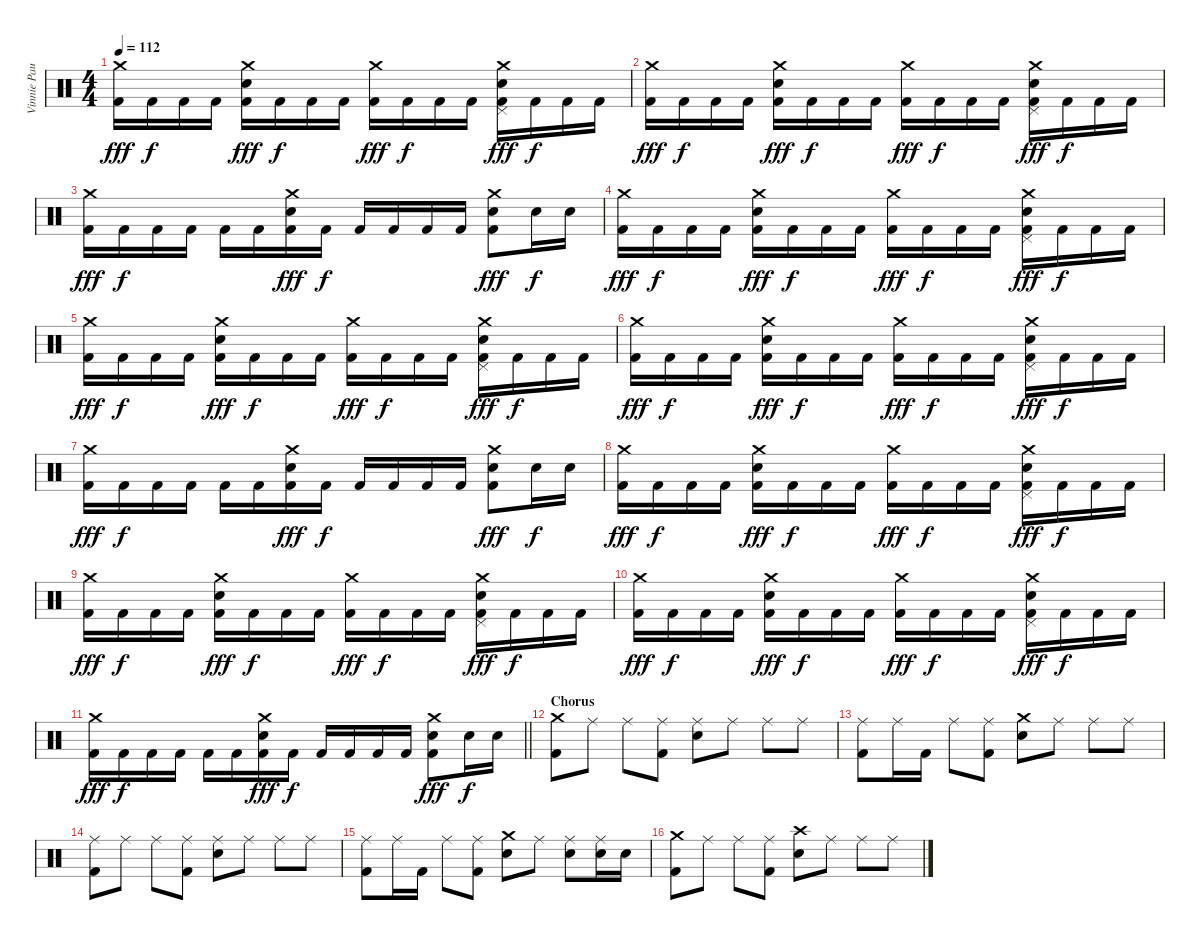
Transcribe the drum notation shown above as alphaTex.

\track ("Vinnie Paul" "Vinnie Pau") {instrument percussion}
\staff {score}
\articulation defaults
\ts (4 4)
\tempo 112
\clef neutral
\ks c
("Crash medium (hit)" "Kick (hit) 2").16{dy fff} "Kick (hit) 2".16{dy f} "Kick (hit) 2".16 "Kick (hit) 2".16 ("Crash medium (hit)" "Electric Snare (hit)" "Kick (hit) 2").16{dy fff} "Kick (hit) 2".16{dy f} "Kick (hit) 2".16 "Kick (hit) 2".16 ("Crash medium (hit)" "Kick (hit) 2").16{dy fff} "Kick (hit) 2".16{dy f} "Kick (hit) 2".16 "Kick (hit) 2".16 ("Crash medium (hit)" "Pedal Hi-Hat (hit)" "Electric Snare (hit)" "Kick (hit) 2").16{dy fff} "Kick (hit) 2".16{dy f} "Kick (hit) 2".16 "Kick (hit) 2".16 |
("Crash medium (hit)" "Kick (hit) 2").16{dy fff} "Kick (hit) 2".16{dy f} "Kick (hit) 2".16 "Kick (hit) 2".16 ("Crash medium (hit)" "Electric Snare (hit)" "Kick (hit) 2").16{dy fff} "Kick (hit) 2".16{dy f} "Kick (hit) 2".16 "Kick (hit) 2".16 ("Crash medium (hit)" "Kick (hit) 2").16{dy fff} "Kick (hit) 2".16{dy f} "Kick (hit) 2".16 "Kick (hit) 2".16 ("Crash medium (hit)" "Pedal Hi-Hat (hit)" "Electric Snare (hit)" "Kick (hit) 2").16{dy fff} "Kick (hit) 2".16{dy f} "Kick (hit) 2".16 "Kick (hit) 2".16 |
("Crash medium (hit)" "Kick (hit) 2").16{dy fff} "Kick (hit) 2".16{dy f} "Kick (hit) 2".16 "Kick (hit) 2".16 "Kick (hit) 2".16 "Kick (hit) 2".16 ("Crash medium (hit)" "Electric Snare (hit)" "Kick (hit) 2").16{dy fff} "Kick (hit) 2".16{dy f} "Kick (hit) 2".16 "Kick (hit) 2".16 "Kick (hit) 2".16 "Kick (hit) 2".16 ("Crash medium (hit)" "Electric Snare (hit)" "Kick (hit) 2").8{dy fff} "Electric Snare (hit)".16{dy f} "Electric Snare (hit)".16 |
("Crash medium (hit)" "Kick (hit) 2").16{dy fff} "Kick (hit) 2".16{dy f} "Kick (hit) 2".16 "Kick (hit) 2".16 ("Crash medium (hit)" "Electric Snare (hit)" "Kick (hit) 2").16{dy fff} "Kick (hit) 2".16{dy f} "Kick (hit) 2".16 "Kick (hit) 2".16 ("Crash medium (hit)" "Kick (hit) 2").16{dy fff} "Kick (hit) 2".16{dy f} "Kick (hit) 2".16 "Kick (hit) 2".16 ("Crash medium (hit)" "Pedal Hi-Hat (hit)" "Electric Snare (hit)" "Kick (hit) 2").16{dy fff} "Kick (hit) 2".16{dy f} "Kick (hit) 2".16 "Kick (hit) 2".16 |
("Crash medium (hit)" "Kick (hit) 2").16{dy fff} "Kick (hit) 2".16{dy f} "Kick (hit) 2".16 "Kick (hit) 2".16 ("Crash medium (hit)" "Electric Snare (hit)" "Kick (hit) 2").16{dy fff} "Kick (hit) 2".16{dy f} "Kick (hit) 2".16 "Kick (hit) 2".16 ("Crash medium (hit)" "Kick (hit) 2").16{dy fff} "Kick (hit) 2".16{dy f} "Kick (hit) 2".16 "Kick (hit) 2".16 ("Crash medium (hit)" "Pedal Hi-Hat (hit)" "Electric Snare (hit)" "Kick (hit) 2").16{dy fff} "Kick (hit) 2".16{dy f} "Kick (hit) 2".16 "Kick (hit) 2".16 |
("Crash medium (hit)" "Kick (hit) 2").16{dy fff} "Kick (hit) 2".16{dy f} "Kick (hit) 2".16 "Kick (hit) 2".16 ("Crash medium (hit)" "Electric Snare (hit)" "Kick (hit) 2").16{dy fff} "Kick (hit) 2".16{dy f} "Kick (hit) 2".16 "Kick (hit) 2".16 ("Crash medium (hit)" "Kick (hit) 2").16{dy fff} "Kick (hit) 2".16{dy f} "Kick (hit) 2".16 "Kick (hit) 2".16 ("Crash medium (hit)" "Pedal Hi-Hat (hit)" "Electric Snare (hit)" "Kick (hit) 2").16{dy fff} "Kick (hit) 2".16{dy f} "Kick (hit) 2".16 "Kick (hit) 2".16 |
("Crash medium (hit)" "Kick (hit) 2").16{dy fff} "Kick (hit) 2".16{dy f} "Kick (hit) 2".16 "Kick (hit) 2".16 "Kick (hit) 2".16 "Kick (hit) 2".16 ("Crash medium (hit)" "Electric Snare (hit)" "Kick (hit) 2").16{dy fff} "Kick (hit) 2".16{dy f} "Kick (hit) 2".16 "Kick (hit) 2".16 "Kick (hit) 2".16 "Kick (hit) 2".16 ("Crash medium (hit)" "Electric Snare (hit)" "Kick (hit) 2").8{dy fff} "Electric Snare (hit)".16{dy f} "Electric Snare (hit)".16 |
("Crash medium (hit)" "Kick (hit) 2").16{dy fff} "Kick (hit) 2".16{dy f} "Kick (hit) 2".16 "Kick (hit) 2".16 ("Crash medium (hit)" "Electric Snare (hit)" "Kick (hit) 2").16{dy fff} "Kick (hit) 2".16{dy f} "Kick (hit) 2".16 "Kick (hit) 2".16 ("Crash medium (hit)" "Kick (hit) 2").16{dy fff} "Kick (hit) 2".16{dy f} "Kick (hit) 2".16 "Kick (hit) 2".16 ("Crash medium (hit)" "Pedal Hi-Hat (hit)" "Electric Snare (hit)" "Kick (hit) 2").16{dy fff} "Kick (hit) 2".16{dy f} "Kick (hit) 2".16 "Kick (hit) 2".16 |
("Crash medium (hit)" "Kick (hit) 2").16{dy fff} "Kick (hit) 2".16{dy f} "Kick (hit) 2".16 "Kick (hit) 2".16 ("Crash medium (hit)" "Electric Snare (hit)" "Kick (hit) 2").16{dy fff} "Kick (hit) 2".16{dy f} "Kick (hit) 2".16 "Kick (hit) 2".16 ("Crash medium (hit)" "Kick (hit) 2").16{dy fff} "Kick (hit) 2".16{dy f} "Kick (hit) 2".16 "Kick (hit) 2".16 ("Crash medium (hit)" "Pedal Hi-Hat (hit)" "Electric Snare (hit)" "Kick (hit) 2").16{dy fff} "Kick (hit) 2".16{dy f} "Kick (hit) 2".16 "Kick (hit) 2".16 |
("Crash medium (hit)" "Kick (hit) 2").16{dy fff} "Kick (hit) 2".16{dy f} "Kick (hit) 2".16 "Kick (hit) 2".16 ("Crash medium (hit)" "Electric Snare (hit)" "Kick (hit) 2").16{dy fff} "Kick (hit) 2".16{dy f} "Kick (hit) 2".16 "Kick (hit) 2".16 ("Crash medium (hit)" "Kick (hit) 2").16{dy fff} "Kick (hit) 2".16{dy f} "Kick (hit) 2".16 "Kick (hit) 2".16 ("Crash medium (hit)" "Pedal Hi-Hat (hit)" "Electric Snare (hit)" "Kick (hit) 2").16{dy fff} "Kick (hit) 2".16{dy f} "Kick (hit) 2".16 "Kick (hit) 2".16 |
\barLineRight lightlight
("Crash medium (hit)" "Kick (hit) 2").16{dy fff} "Kick (hit) 2".16{dy f} "Kick (hit) 2".16 "Kick (hit) 2".16 "Kick (hit) 2".16 "Kick (hit) 2".16 ("Crash medium (hit)" "Electric Snare (hit)" "Kick (hit) 2").16{dy fff} "Kick (hit) 2".16{dy f} "Kick (hit) 2".16 "Kick (hit) 2".16 "Kick (hit) 2".16 "Kick (hit) 2".16 ("Crash medium (hit)" "Electric Snare (hit)" "Kick (hit) 2").8{dy fff} "Electric Snare (hit)".16{dy f} "Electric Snare (hit)".16 |
\section ("" "Chorus")
("Crash medium (hit)" "Kick (hit) 2").8 "Ride (middle)".8 "Ride (middle)".8 ("Ride (middle)" "Kick (hit) 2").8 ("Ride (middle)" "Electric Snare (hit)").8 "Ride (middle)".8 "Ride (middle)".8 "Ride (middle)".8 |
("Ride (middle)" "Kick (hit) 2").8 "Ride (middle)".16 "Kick (hit) 2".16 "Ride (middle)".8 ("Ride (middle)" "Kick (hit) 2").8 ("Crash medium (hit)" "Electric Snare (hit)").8 "Ride (middle)".8 "Ride (middle)".8 "Ride (middle)".8 |
("Ride (middle)" "Kick (hit) 2").8 "Ride (middle)".8 "Ride (middle)".8 ("Ride (middle)" "Kick (hit) 2").8 ("Ride (middle)" "Electric Snare (hit)").8 "Ride (middle)".8 "Ride (middle)".8 "Ride (middle)".8 |
("Ride (middle)" "Kick (hit) 2").8 "Ride (middle)".16 "Kick (hit) 2".16 "Ride (middle)".8 ("Ride (middle)" "Kick (hit) 2").8 ("Crash medium (hit)" "Electric Snare (hit)").8 "Ride (middle)".8 ("Ride (middle)" "Electric Snare (hit)").8 ("Ride (middle)" "Electric Snare (hit)").16 "Electric Snare (hit)".16 |
("Crash medium (hit)" "Kick (hit) 2").8 "Ride (middle)".8 "Ride (middle)".8 ("Ride (middle)" "Kick (hit) 2").8 ("Crash high (hit)" "Electric Snare (hit)").8 "Ride (middle)".8 "Ride (middle)".8 "Ride (middle)".8
